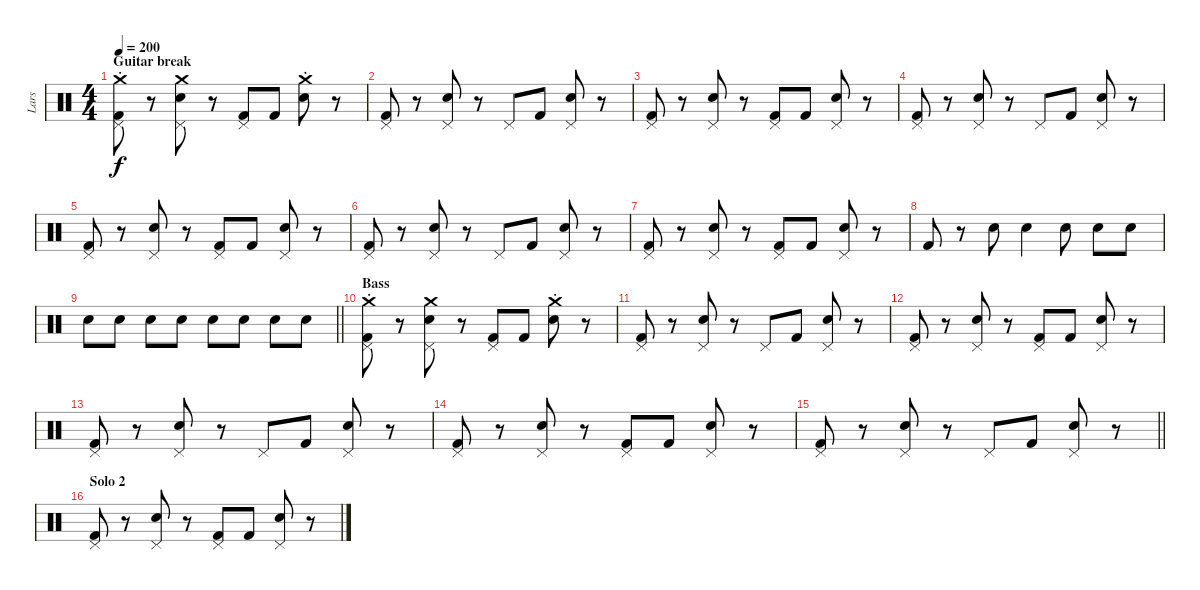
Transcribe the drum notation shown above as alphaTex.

\track ("Lars" "Lars") {instrument percussion}
\staff {score}
\articulation defaults
\ts (4 4)
\section ("" "Guitar break")
\tempo 200
\clef neutral
\ks c
("Crash medium (hit)"{st} "Pedal Hi-Hat (hit)" "Kick (hit) 2").8{dy f} r.8 ("Crash medium (hit)" "Pedal Hi-Hat (hit)" "Snare (hit) 2").8 r.8 ("Pedal Hi-Hat (hit)" "Kick (hit) 2").8 "Kick (hit) 2".8 ("Crash medium (hit)"{st} "Snare (hit) 2").8 r.8 |
("Pedal Hi-Hat (hit)" "Kick (hit) 2").8 r.8 ("Pedal Hi-Hat (hit)" "Snare (hit) 2").8 r.8 "Pedal Hi-Hat (hit)".8 "Kick (hit) 2".8 ("Pedal Hi-Hat (hit)" "Snare (hit) 2").8 r.8 |
("Pedal Hi-Hat (hit)" "Kick (hit) 2").8 r.8 ("Pedal Hi-Hat (hit)" "Snare (hit) 2").8 r.8 ("Pedal Hi-Hat (hit)" "Kick (hit) 2").8 "Kick (hit) 2".8 ("Pedal Hi-Hat (hit)" "Snare (hit) 2").8 r.8 |
("Pedal Hi-Hat (hit)" "Kick (hit) 2").8 r.8 ("Pedal Hi-Hat (hit)" "Snare (hit) 2").8 r.8 "Pedal Hi-Hat (hit)".8 "Kick (hit) 2".8 ("Pedal Hi-Hat (hit)" "Snare (hit) 2").8 r.8 |
("Pedal Hi-Hat (hit)" "Kick (hit) 2").8 r.8 ("Pedal Hi-Hat (hit)" "Snare (hit) 2").8 r.8 ("Pedal Hi-Hat (hit)" "Kick (hit) 2").8 "Kick (hit) 2".8 ("Pedal Hi-Hat (hit)" "Snare (hit) 2").8 r.8 |
("Pedal Hi-Hat (hit)" "Kick (hit) 2").8 r.8 ("Pedal Hi-Hat (hit)" "Snare (hit) 2").8 r.8 "Pedal Hi-Hat (hit)".8 "Kick (hit) 2".8 ("Pedal Hi-Hat (hit)" "Snare (hit) 2").8 r.8 |
("Pedal Hi-Hat (hit)" "Kick (hit) 2").8 r.8 ("Pedal Hi-Hat (hit)" "Snare (hit) 2").8 r.8 ("Pedal Hi-Hat (hit)" "Kick (hit) 2").8 "Kick (hit) 2".8 ("Pedal Hi-Hat (hit)" "Snare (hit) 2").8 r.8 |
"Kick (hit) 2".8 r.8 "Snare (hit) 2".8 "Snare (hit) 2".4 "Snare (hit) 2".8 "Snare (hit) 2".8 "Snare (hit) 2".8 |
\barLineRight lightlight "Snare (hit) 2".8 "Snare (hit) 2".8 "Snare (hit) 2".8 "Snare (hit) 2".8 "Snare (hit) 2".8 "Snare (hit) 2".8 "Snare (hit) 2".8 "Snare (hit) 2".8
|
\section ("" "Bass")
("Crash medium (hit)"{st} "Pedal Hi-Hat (hit)" "Kick (hit) 2").8 r.8 ("Crash medium (hit)" "Pedal Hi-Hat (hit)" "Snare (hit) 2").8 r.8 ("Pedal Hi-Hat (hit)" "Kick (hit) 2").8 "Kick (hit) 2".8 ("Crash medium (hit)"{st} "Snare (hit) 2").8 r.8 |
("Pedal Hi-Hat (hit)" "Kick (hit) 2").8 r.8 ("Pedal Hi-Hat (hit)" "Snare (hit) 2").8 r.8 "Pedal Hi-Hat (hit)".8 "Kick (hit) 2".8 ("Pedal Hi-Hat (hit)" "Snare (hit) 2").8 r.8 |
("Pedal Hi-Hat (hit)" "Kick (hit) 2").8 r.8 ("Pedal Hi-Hat (hit)" "Snare (hit) 2").8 r.8 ("Pedal Hi-Hat (hit)" "Kick (hit) 2").8 "Kick (hit) 2".8 ("Pedal Hi-Hat (hit)" "Snare (hit) 2").8 r.8 |
("Pedal Hi-Hat (hit)" "Kick (hit) 2").8 r.8 ("Pedal Hi-Hat (hit)" "Snare (hit) 2").8 r.8 "Pedal Hi-Hat (hit)".8 "Kick (hit) 2".8 ("Pedal Hi-Hat (hit)" "Snare (hit) 2").8 r.8 |
("Pedal Hi-Hat (hit)" "Kick (hit) 2").8 r.8 ("Pedal Hi-Hat (hit)" "Snare (hit) 2").8 r.8 ("Pedal Hi-Hat (hit)" "Kick (hit) 2").8 "Kick (hit) 2".8 ("Pedal Hi-Hat (hit)" "Snare (hit) 2").8 r.8 |
\barLineRight lightlight
("Pedal Hi-Hat (hit)" "Kick (hit) 2").8 r.8 ("Pedal Hi-Hat (hit)" "Snare (hit) 2").8 r.8 "Pedal Hi-Hat (hit)".8 "Kick (hit) 2".8 ("Pedal Hi-Hat (hit)" "Snare (hit) 2").8 r.8 |
\section ("" "Solo 2")
("Pedal Hi-Hat (hit)" "Kick (hit) 2").8 r.8 ("Pedal Hi-Hat (hit)" "Snare (hit) 2").8 r.8 ("Pedal Hi-Hat (hit)" "Kick (hit) 2").8 "Kick (hit) 2".8 ("Pedal Hi-Hat (hit)" "Snare (hit) 2").8 r.8
